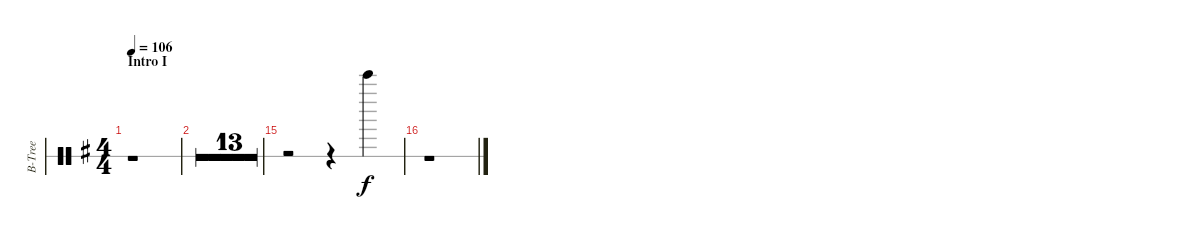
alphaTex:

\defaultSystemsLayout 4
\bracketExtendMode groupsimilarinstruments
\otherSystemsTrackNameOrientation horizontal
\track ("Bell Tree" "B-Tree") {multiBarRest instrument percussion}
\staff {score 1}
\articulation defaults
\ts (4 4)
\section ("" "Intro I")
\tempo 106
\clef neutral
\ks g
r.1{dy f} |
r.1 |
r.1 |
r.1 |
r.1 |
r.1 |
r.1 |
r.1 |
r.1 |
r.1 |
r.1 |
r.1 |
r.1 |
r.1 |
r.2 r.4 "Bell Tree (hit)"{acc forcenatural}.4 |
r.1
